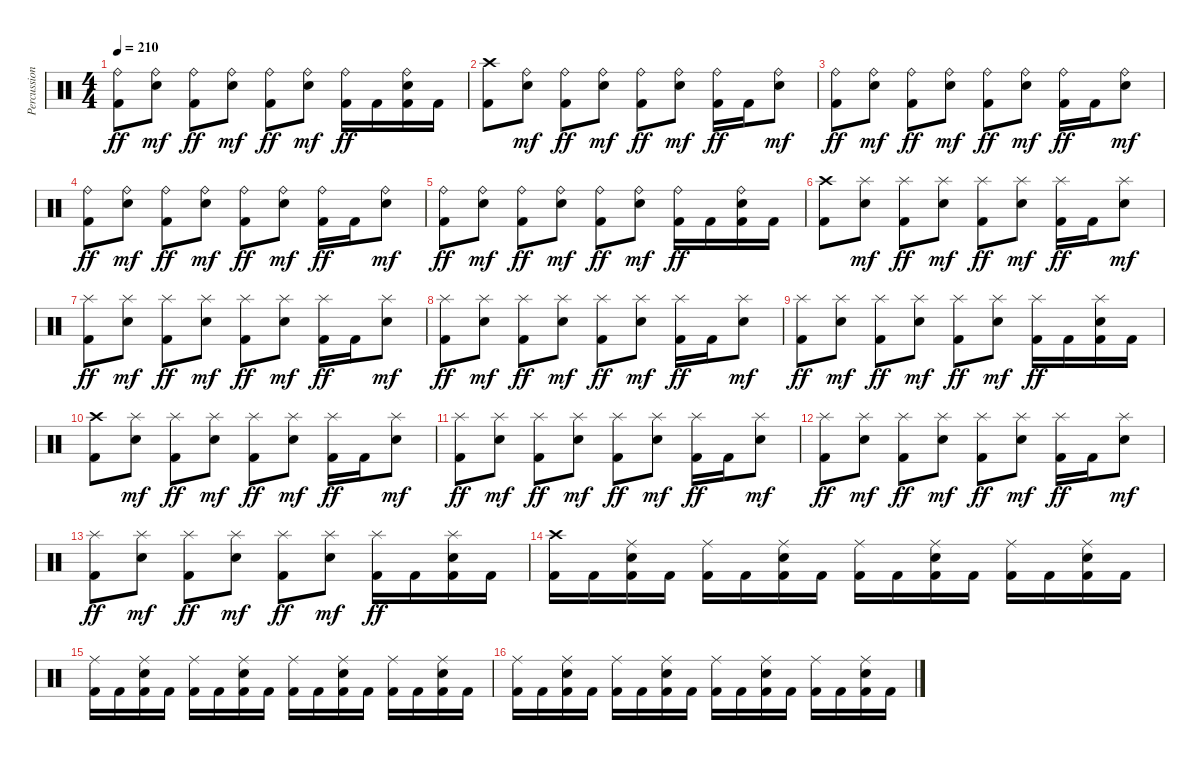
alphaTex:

\track ("Percussion" "Percussion") {instrument percussion}
\staff {score}
\articulation defaults
\ts (4 4)
\tempo 210
\clef neutral
\ks c
("Ride (bell)" "Kick (hit) 2").8{dy ff} ("Ride (bell)" "Snare (hit) 2").8{dy mf} ("Ride (bell)" "Kick (hit) 2").8{dy ff} ("Ride (bell)" "Snare (hit) 2").8{dy mf} ("Ride (bell)" "Kick (hit) 2").8{dy ff} ("Ride (bell)" "Snare (hit) 2").8{dy mf} ("Ride (bell)" "Kick (hit) 2").16{dy ff} "Kick (hit) 2".16 ("Ride (bell)" "Snare (hit) 2" "Kick (hit) 2").16 "Kick (hit) 2".16 |
("Crash high (hit)" "Kick (hit) 2").8 ("Ride (bell)" "Snare (hit) 2").8{dy mf} ("Ride (bell)" "Kick (hit) 2").8{dy ff} ("Ride (bell)" "Snare (hit) 2").8{dy mf} ("Ride (bell)" "Kick (hit) 2").8{dy ff} ("Ride (bell)" "Snare (hit) 2").8{dy mf} ("Ride (bell)" "Kick (hit) 2").16{dy ff} "Kick (hit) 2".16 ("Ride (bell)" "Snare (hit) 2").8{dy mf} |
("Ride (bell)" "Kick (hit) 2").8{dy ff} ("Ride (bell)" "Snare (hit) 2").8{dy mf} ("Ride (bell)" "Kick (hit) 2").8{dy ff} ("Ride (bell)" "Snare (hit) 2").8{dy mf} ("Ride (bell)" "Kick (hit) 2").8{dy ff} ("Ride (bell)" "Snare (hit) 2").8{dy mf} ("Ride (bell)" "Kick (hit) 2").16{dy ff} "Kick (hit) 2".16 ("Ride (bell)" "Snare (hit) 2").8{dy mf} |
("Ride (bell)" "Kick (hit) 2").8{dy ff} ("Ride (bell)" "Snare (hit) 2").8{dy mf} ("Ride (bell)" "Kick (hit) 2").8{dy ff} ("Ride (bell)" "Snare (hit) 2").8{dy mf} ("Ride (bell)" "Kick (hit) 2").8{dy ff} ("Ride (bell)" "Snare (hit) 2").8{dy mf} ("Ride (bell)" "Kick (hit) 2").16{dy ff} "Kick (hit) 2".16 ("Ride (bell)" "Snare (hit) 2").8{dy mf} |
("Ride (bell)" "Kick (hit) 2").8{dy ff} ("Ride (bell)" "Snare (hit) 2").8{dy mf} ("Ride (bell)" "Kick (hit) 2").8{dy ff} ("Ride (bell)" "Snare (hit) 2").8{dy mf} ("Ride (bell)" "Kick (hit) 2").8{dy ff} ("Ride (bell)" "Snare (hit) 2").8{dy mf} ("Ride (bell)" "Kick (hit) 2").16{dy ff} "Kick (hit) 2".16 ("Ride (bell)" "Snare (hit) 2" "Kick (hit) 2").16 "Kick (hit) 2".16 |
("Crash high (hit)" "Kick (hit) 2").8 ("Splash (hit)" "Snare (hit) 2").8{dy mf} ("Splash (hit)" "Kick (hit) 2").8{dy ff} ("Splash (hit)" "Snare (hit) 2").8{dy mf} ("Splash (hit)" "Kick (hit) 2").8{dy ff} ("Splash (hit)" "Snare (hit) 2").8{dy mf} ("Splash (hit)" "Kick (hit) 2").16{dy ff} "Kick (hit) 2".16 ("Splash (hit)" "Snare (hit) 2").8{dy mf} |
("Splash (hit)" "Kick (hit) 2").8{dy ff} ("Splash (hit)" "Snare (hit) 2").8{dy mf} ("Splash (hit)" "Kick (hit) 2").8{dy ff} ("Splash (hit)" "Snare (hit) 2").8{dy mf} ("Splash (hit)" "Kick (hit) 2").8{dy ff} ("Splash (hit)" "Snare (hit) 2").8{dy mf} ("Splash (hit)" "Kick (hit) 2").16{dy ff} "Kick (hit) 2".16 ("Splash (hit)" "Snare (hit) 2").8{dy mf} |
("Splash (hit)" "Kick (hit) 2").8{dy ff} ("Splash (hit)" "Snare (hit) 2").8{dy mf} ("Splash (hit)" "Kick (hit) 2").8{dy ff} ("Splash (hit)" "Snare (hit) 2").8{dy mf} ("Splash (hit)" "Kick (hit) 2").8{dy ff} ("Splash (hit)" "Snare (hit) 2").8{dy mf} ("Splash (hit)" "Kick (hit) 2").16{dy ff} "Kick (hit) 2".16 ("Splash (hit)" "Snare (hit) 2").8{dy mf} |
("Splash (hit)" "Kick (hit) 2").8{dy ff} ("Splash (hit)" "Snare (hit) 2").8{dy mf} ("Splash (hit)" "Kick (hit) 2").8{dy ff} ("Splash (hit)" "Snare (hit) 2").8{dy mf} ("Splash (hit)" "Kick (hit) 2").8{dy ff} ("Splash (hit)" "Snare (hit) 2").8{dy mf} ("Splash (hit)" "Kick (hit) 2").16{dy ff} "Kick (hit) 2".16 ("Splash (hit)" "Snare (hit) 2" "Kick (hit) 2").16 "Kick (hit) 2".16 |
("Crash high (hit)" "Kick (hit) 2").8 ("Splash (hit)" "Snare (hit) 2").8{dy mf} ("Splash (hit)" "Kick (hit) 2").8{dy ff} ("Splash (hit)" "Snare (hit) 2").8{dy mf} ("Splash (hit)" "Kick (hit) 2").8{dy ff} ("Splash (hit)" "Snare (hit) 2").8{dy mf} ("Splash (hit)" "Kick (hit) 2").16{dy ff} "Kick (hit) 2".16 ("Splash (hit)" "Snare (hit) 2").8{dy mf} |
("Splash (hit)" "Kick (hit) 2").8{dy ff} ("Splash (hit)" "Snare (hit) 2").8{dy mf} ("Splash (hit)" "Kick (hit) 2").8{dy ff} ("Splash (hit)" "Snare (hit) 2").8{dy mf} ("Splash (hit)" "Kick (hit) 2").8{dy ff} ("Splash (hit)" "Snare (hit) 2").8{dy mf} ("Splash (hit)" "Kick (hit) 2").16{dy ff} "Kick (hit) 2".16 ("Splash (hit)" "Snare (hit) 2").8{dy mf} |
("Splash (hit)" "Kick (hit) 2").8{dy ff} ("Splash (hit)" "Snare (hit) 2").8{dy mf} ("Splash (hit)" "Kick (hit) 2").8{dy ff} ("Splash (hit)" "Snare (hit) 2").8{dy mf} ("Splash (hit)" "Kick (hit) 2").8{dy ff} ("Splash (hit)" "Snare (hit) 2").8{dy mf} ("Splash (hit)" "Kick (hit) 2").16{dy ff} "Kick (hit) 2".16 ("Splash (hit)" "Snare (hit) 2").8{dy mf} |
("Splash (hit)" "Kick (hit) 2").8{dy ff} ("Splash (hit)" "Snare (hit) 2").8{dy mf} ("Splash (hit)" "Kick (hit) 2").8{dy ff} ("Splash (hit)" "Snare (hit) 2").8{dy mf} ("Splash (hit)" "Kick (hit) 2").8{dy ff} ("Splash (hit)" "Snare (hit) 2").8{dy mf} ("Splash (hit)" "Kick (hit) 2").16{dy ff} "Kick (hit) 2".16 ("Splash (hit)" "Snare (hit) 2" "Kick (hit) 2").16 "Kick (hit) 2".16 |
("Crash high (hit)" "Kick (hit) 2").16 "Kick (hit) 2".16 ("Ride (middle)" "Snare (hit) 2" "Kick (hit) 2").16 "Kick (hit) 2".16 ("Ride (middle)" "Kick (hit) 2").16 "Kick (hit) 2".16 ("Ride (middle)" "Snare (hit) 2" "Kick (hit) 2").16 "Kick (hit) 2".16 ("Ride (middle)" "Kick (hit) 2").16 "Kick (hit) 2".16 ("Ride (middle)" "Snare (hit) 2" "Kick (hit) 2").16 "Kick (hit) 2".16 ("Ride (middle)" "Kick (hit) 2").16 "Kick (hit) 2".16 ("Ride (middle)" "Snare (hit) 2" "Kick (hit) 2").16 "Kick (hit) 2".16 |
("Ride (middle)" "Kick (hit) 2").16 "Kick (hit) 2".16 ("Ride (middle)" "Snare (hit) 2" "Kick (hit) 2").16 "Kick (hit) 2".16 ("Ride (middle)" "Kick (hit) 2").16 "Kick (hit) 2".16 ("Ride (middle)" "Snare (hit) 2" "Kick (hit) 2").16 "Kick (hit) 2".16 ("Ride (middle)" "Kick (hit) 2").16 "Kick (hit) 2".16 ("Ride (middle)" "Snare (hit) 2" "Kick (hit) 2").16 "Kick (hit) 2".16 ("Ride (middle)" "Kick (hit) 2").16 "Kick (hit) 2".16 ("Ride (middle)" "Snare (hit) 2" "Kick (hit) 2").16 "Kick (hit) 2".16 |
("Ride (middle)" "Kick (hit) 2").16 "Kick (hit) 2".16 ("Ride (middle)" "Snare (hit) 2" "Kick (hit) 2").16 "Kick (hit) 2".16 ("Ride (middle)" "Kick (hit) 2").16 "Kick (hit) 2".16 ("Ride (middle)" "Snare (hit) 2" "Kick (hit) 2").16 "Kick (hit) 2".16 ("Ride (middle)" "Kick (hit) 2").16 "Kick (hit) 2".16 ("Ride (middle)" "Snare (hit) 2" "Kick (hit) 2").16 "Kick (hit) 2".16 ("Ride (middle)" "Kick (hit) 2").16 "Kick (hit) 2".16 ("Ride (middle)" "Snare (hit) 2" "Kick (hit) 2").16 "Kick (hit) 2".16
